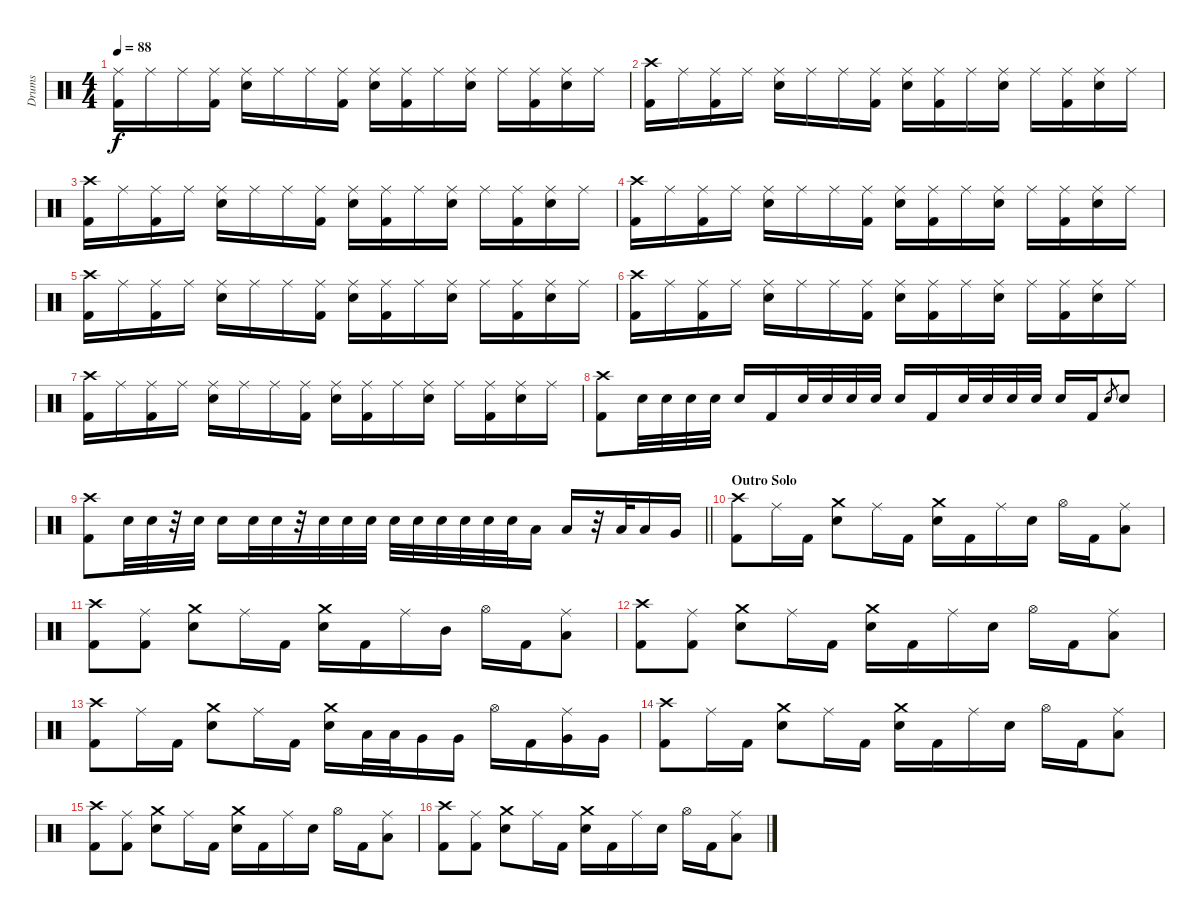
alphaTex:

\track ("Drums" "Drums") {instrument percussion}
\staff {score}
\articulation defaults
\ts (4 4)
\tempo 88
\clef neutral
\ks c
("Ride (middle)" "Kick (hit) 2").16{dy f} "Ride (middle)".16 "Ride (middle)".16 ("Ride (middle)" "Kick (hit) 2").16 ("Ride (middle)" "Snare (hit) 2").16 "Ride (middle)".16 "Ride (middle)".16 ("Ride (middle)" "Kick (hit) 2").16 ("Ride (middle)" "Snare (hit) 2").16 ("Ride (middle)" "Kick (hit) 2").16 "Ride (middle)".16 ("Ride (middle)" "Snare (hit) 2").16 "Ride (middle)".16 ("Ride (middle)" "Kick (hit) 2").16 ("Ride (middle)" "Snare (hit) 2").16 "Ride (middle)".16 |
("Crash high (hit)" "Kick (hit) 2").16 "Ride (middle)".16 ("Ride (middle)" "Kick (hit) 2").16 "Ride (middle)".16 ("Ride (middle)" "Snare (hit) 2").16 "Ride (middle)".16 "Ride (middle)".16 ("Ride (middle)" "Kick (hit) 2").16 ("Ride (middle)" "Snare (hit) 2").16 ("Ride (middle)" "Kick (hit) 2").16 "Ride (middle)".16 ("Ride (middle)" "Snare (hit) 2").16 "Ride (middle)".16 ("Ride (middle)" "Kick (hit) 2").16 ("Ride (middle)" "Snare (hit) 2").16 "Ride (middle)".16 |
("Crash high (hit)" "Kick (hit) 2").16 "Ride (middle)".16 ("Ride (middle)" "Kick (hit) 2").16 "Ride (middle)".16 ("Ride (middle)" "Snare (hit) 2").16 "Ride (middle)".16 "Ride (middle)".16 ("Ride (middle)" "Kick (hit) 2").16 ("Ride (middle)" "Snare (hit) 2").16 ("Ride (middle)" "Kick (hit) 2").16 "Ride (middle)".16 ("Ride (middle)" "Snare (hit) 2").16 "Ride (middle)".16 ("Ride (middle)" "Kick (hit) 2").16 ("Ride (middle)" "Snare (hit) 2").16 "Ride (middle)".16 |
("Crash high (hit)" "Kick (hit) 2").16 "Ride (middle)".16 ("Ride (middle)" "Kick (hit) 2").16 "Ride (middle)".16 ("Ride (middle)" "Snare (hit) 2").16 "Ride (middle)".16 "Ride (middle)".16 ("Ride (middle)" "Kick (hit) 2").16 ("Ride (middle)" "Snare (hit) 2").16 ("Ride (middle)" "Kick (hit) 2").16 "Ride (middle)".16 ("Ride (middle)" "Snare (hit) 2").16 "Ride (middle)".16 ("Ride (middle)" "Kick (hit) 2").16 ("Ride (middle)" "Snare (hit) 2").16 "Ride (middle)".16 |
("Crash high (hit)" "Kick (hit) 2").16 "Ride (middle)".16 ("Ride (middle)" "Kick (hit) 2").16 "Ride (middle)".16 ("Ride (middle)" "Snare (hit) 2").16 "Ride (middle)".16 "Ride (middle)".16 ("Ride (middle)" "Kick (hit) 2").16 ("Ride (middle)" "Snare (hit) 2").16 ("Ride (middle)" "Kick (hit) 2").16 "Ride (middle)".16 ("Ride (middle)" "Snare (hit) 2").16 "Ride (middle)".16 ("Ride (middle)" "Kick (hit) 2").16 ("Ride (middle)" "Snare (hit) 2").16 "Ride (middle)".16 |
("Crash high (hit)" "Kick (hit) 2").16 "Ride (middle)".16 ("Ride (middle)" "Kick (hit) 2").16 "Ride (middle)".16 ("Ride (middle)" "Snare (hit) 2").16 "Ride (middle)".16 "Ride (middle)".16 ("Ride (middle)" "Kick (hit) 2").16 ("Ride (middle)" "Snare (hit) 2").16 ("Ride (middle)" "Kick (hit) 2").16 "Ride (middle)".16 ("Ride (middle)" "Snare (hit) 2").16 "Ride (middle)".16 ("Ride (middle)" "Kick (hit) 2").16 ("Ride (middle)" "Snare (hit) 2").16 "Ride (middle)".16 |
("Crash high (hit)" "Kick (hit) 2").16 "Ride (middle)".16 ("Ride (middle)" "Kick (hit) 2").16 "Ride (middle)".16 ("Ride (middle)" "Snare (hit) 2").16 "Ride (middle)".16 "Ride (middle)".16 ("Ride (middle)" "Kick (hit) 2").16 ("Ride (middle)" "Snare (hit) 2").16 ("Ride (middle)" "Kick (hit) 2").16 "Ride (middle)".16 ("Ride (middle)" "Snare (hit) 2").16 "Ride (middle)".16 ("Ride (middle)" "Kick (hit) 2").16 ("Ride (middle)" "Snare (hit) 2").16 "Ride (middle)".16 |
("Crash high (hit)" "Kick (hit) 2").8 "Snare (hit) 2".32 "Snare (hit) 2".32 "Snare (hit) 2".32 "Snare (hit) 2".32 "Snare (hit) 2".16 "Kick (hit) 2".16 "Snare (hit) 2".32 "Snare (hit) 2".32 "Snare (hit) 2".32 "Snare (hit) 2".32 "Snare (hit) 2".16 "Kick (hit) 2".16 "Snare (hit) 2".32 "Snare (hit) 2".32 "Snare (hit) 2".32 "Snare (hit) 2".32 "Snare (hit) 2".16 "Kick (hit) 2".16 "Snare (hit) 2".8{gr} "Snare (hit) 2".8 |
\barLineRight lightlight
("Crash high (hit)" "Kick (hit) 2").8 "Snare (hit) 2".32 "Snare (hit) 2".32 r.32 "Snare (hit) 2".32 "Snare (hit) 2".16 "Snare (hit) 2".32 "Snare (hit) 2".32 r.32 "Snare (hit) 2".32 "Snare (hit) 2".32 "Snare (hit) 2".32 "Snare (hit) 2".32 "Snare (hit) 2".32 "Snare (hit) 2".32 "Snare (hit) 2".32 "Snare (hit) 2".32 "Snare (hit) 2".32 "Low Tom (hit)".16 "Low Tom (hit)".16 r.32 "Low Tom (hit)".32 "Low Tom (hit)".16 "Very Low Tom (hit)".16 |
\section ("" "Outro Solo")
("Crash high (hit)" "Kick (hit) 2").8 "Ride (middle)".16 "Kick (hit) 2".16 ("Crash medium (hit)" "Snare (hit) 2").8 "Ride (middle)".16 "Kick (hit) 2".16 ("Crash medium (hit)" "Snare (hit) 2").16 "Kick (hit) 2".16 "Ride (middle)".16 "Snare (hit) 2".16 "Hi-Hat (open)".16 "Kick (hit) 2".16 ("Ride (middle)" "Low Tom (hit)").8 |
("Crash high (hit)" "Kick (hit) 2").8 ("Ride (middle)" "Kick (hit) 2").8 ("Crash medium (hit)" "Snare (hit) 2").8 "Ride (middle)".16 "Kick (hit) 2".16 ("Crash medium (hit)" "Snare (hit) 2").16 "Kick (hit) 2".16 "Ride (middle)".16 "Mid Tom (hit)".16 "Hi-Hat (open)".16 "Kick (hit) 2".16 ("Ride (middle)" "Low Tom (hit)").8 |
("Crash high (hit)" "Kick (hit) 2").8 ("Ride (middle)" "Kick (hit) 2").8 ("Crash medium (hit)" "Snare (hit) 2").8 "Ride (middle)".16 "Kick (hit) 2".16 ("Crash medium (hit)" "Snare (hit) 2").16 "Kick (hit) 2".16 "Ride (middle)".16 "Snare (hit) 2".16 "Hi-Hat (open)".16 "Kick (hit) 2".16 ("Ride (middle)" "Low Tom (hit)").8 |
("Crash high (hit)" "Kick (hit) 2").8 "Ride (middle)".16 "Kick (hit) 2".16 ("Crash medium (hit)" "Snare (hit) 2").8 "Ride (middle)".16 "Kick (hit) 2".16 ("Crash medium (hit)" "Snare (hit) 2").16 "Low Tom (hit)".32 "Low Tom (hit)".32 "Very Low Tom (hit)".16 "Very Low Tom (hit)".16 "Hi-Hat (open)".16 "Kick (hit) 2".16 ("Ride (middle)" "Very Low Tom (hit)").16 "Very Low Tom (hit)".16 |
("Crash high (hit)" "Kick (hit) 2").8 "Ride (middle)".16 "Kick (hit) 2".16 ("Crash medium (hit)" "Snare (hit) 2").8 "Ride (middle)".16 "Kick (hit) 2".16 ("Crash medium (hit)" "Snare (hit) 2").16 "Kick (hit) 2".16 "Ride (middle)".16 "Snare (hit) 2".16 "Hi-Hat (open)".16 "Kick (hit) 2".16 ("Ride (middle)" "Low Tom (hit)").8 |
("Crash high (hit)" "Kick (hit) 2").8 ("Ride (middle)" "Kick (hit) 2").8 ("Crash medium (hit)" "Snare (hit) 2").8 "Ride (middle)".16 "Kick (hit) 2".16 ("Crash medium (hit)" "Snare (hit) 2").16 "Kick (hit) 2".16 "Ride (middle)".16 "Snare (hit) 2".16 "Hi-Hat (open)".16 "Kick (hit) 2".16 ("Ride (middle)" "Low Tom (hit)").8 |
("Crash high (hit)" "Kick (hit) 2").8 ("Ride (middle)" "Kick (hit) 2").8 ("Crash medium (hit)" "Snare (hit) 2").8 "Ride (middle)".16 "Kick (hit) 2".16 ("Crash medium (hit)" "Snare (hit) 2").16 "Kick (hit) 2".16 "Ride (middle)".16 "Snare (hit) 2".16 "Hi-Hat (open)".16 "Kick (hit) 2".16 ("Ride (middle)" "Low Tom (hit)").8
